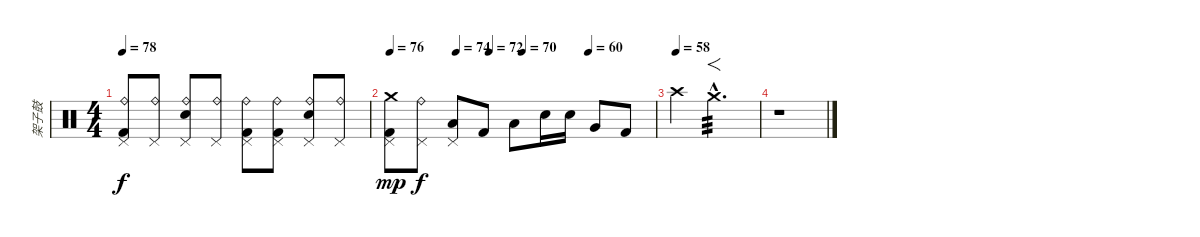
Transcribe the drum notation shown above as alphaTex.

\track ("架子鼓" "架子鼓") {instrument percussion}
\staff {score}
\articulation defaults
\ts (4 4)
\tempo 78
\clef neutral
\ks c
("Ride (bell)" "Pedal Hi-Hat (hit)" "Kick (hit) 2").8{dy f} ("Ride (bell)" "Pedal Hi-Hat (hit)").8 ("Ride (bell)" "Pedal Hi-Hat (hit)" "Electric Snare (hit)").8 ("Ride (bell)" "Pedal Hi-Hat (hit)").8 ("Ride (bell)" "Pedal Hi-Hat (hit)" "Kick (hit) 2").8 ("Ride (bell)" "Pedal Hi-Hat (hit)" "Kick (hit) 2").8 ("Ride (bell)" "Pedal Hi-Hat (hit)" "Electric Snare (hit)").8 ("Ride (bell)" "Pedal Hi-Hat (hit)").8 |
\tempo 76
\tempo (74 0.25)
\tempo (72 0.375)
\tempo (70 0.5)
\tempo (60 0.75)
("Crash medium (hit)" "Pedal Hi-Hat (hit)" "Kick (hit) 2").8{dy mp} ("Ride (bell)" "Pedal Hi-Hat (hit)").8{dy f} ("Pedal Hi-Hat (hit)" "Low Tom (hit)").8 "Kick (hit) 2".8 "Low Tom (hit)".8 "Electric Snare (hit)".16 "Electric Snare (hit)".16 "Very Low Tom (hit)".8 "Kick (hit) 2".8 |
\tempo (58)
"Crash high (hit)".4 "Crash medium (hit)"{hac}.2{f d tp 3} |
r.1
